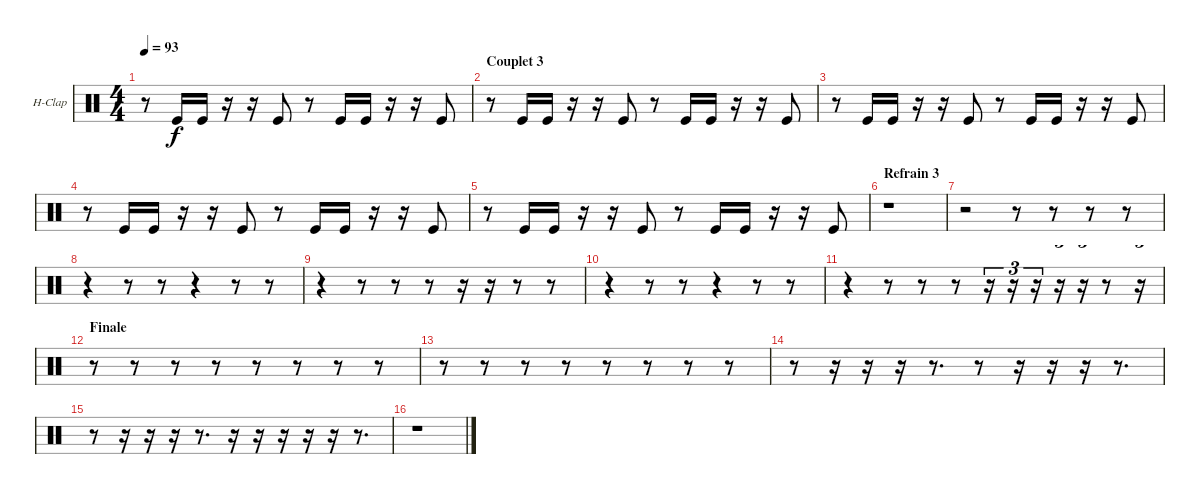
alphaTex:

\bracketExtendMode groupsimilarinstruments
\firstSystemTrackNameOrientation horizontal
\otherSystemsTrackNameOrientation horizontal
\track ("Hand Clap" "H-Clap") {instrument percussion}
\staff {score}
\articulation defaults
\ts (4 4)
\tempo 93
\clef neutral
\ks c
r.8{dy f} "Kick (hit)".16 "Kick (hit)".16 r.16 r.16 "Kick (hit)".8 r.8 "Kick (hit)".16 "Kick (hit)".16 r.16 r.16 "Kick (hit)".8 |
\section ("" "Couplet 3")
r.8 "Kick (hit)".16 "Kick (hit)".16 r.16 r.16 "Kick (hit)".8 r.8 "Kick (hit)".16 "Kick (hit)".16 r.16 r.16 "Kick (hit)".8 |
r.8 "Kick (hit)".16 "Kick (hit)".16 r.16 r.16 "Kick (hit)".8 r.8 "Kick (hit)".16 "Kick (hit)".16 r.16 r.16 "Kick (hit)".8 |
r.8 "Kick (hit)".16 "Kick (hit)".16 r.16 r.16 "Kick (hit)".8 r.8 "Kick (hit)".16 "Kick (hit)".16 r.16 r.16 "Kick (hit)".8 |
r.8 "Kick (hit)".16 "Kick (hit)".16 r.16 r.16 "Kick (hit)".8 r.8 "Kick (hit)".16 "Kick (hit)".16 r.16 r.16 "Kick (hit)".8 |
\section ("" "Refrain 3")
r.1 |
r.2 r.8 r.8 r.8 r.8 |
r.4 r.8 r.8 r.4 r.8 r.8 |
r.4 r.8 r.8 r.8 r.16 r.16 r.8 r.8 |
r.4 r.8 r.8 r.4 r.8 r.8 |
r.4 r.8 r.8 r.8 r.16{tu (3 2)} r.16{tu (3 2)} r.16{tu (3 2)} r.16{tu (3 2)} r.16{tu (3 2)} r.8 r.16{tu (3 2)} |
\section ("" "Finale")
r.8 r.8 r.8 r.8 r.8 r.8 r.8 r.8 |
r.8 r.8 r.8 r.8 r.8 r.8 r.8 r.8 |
r.8 r.16 r.16 r.16 r.8{d} r.8 r.16 r.16 r.16 r.8{d} |
r.8 r.16 r.16 r.16 r.8{d} r.16 r.16 r.16 r.16 r.16 r.8{d} |
r.1
